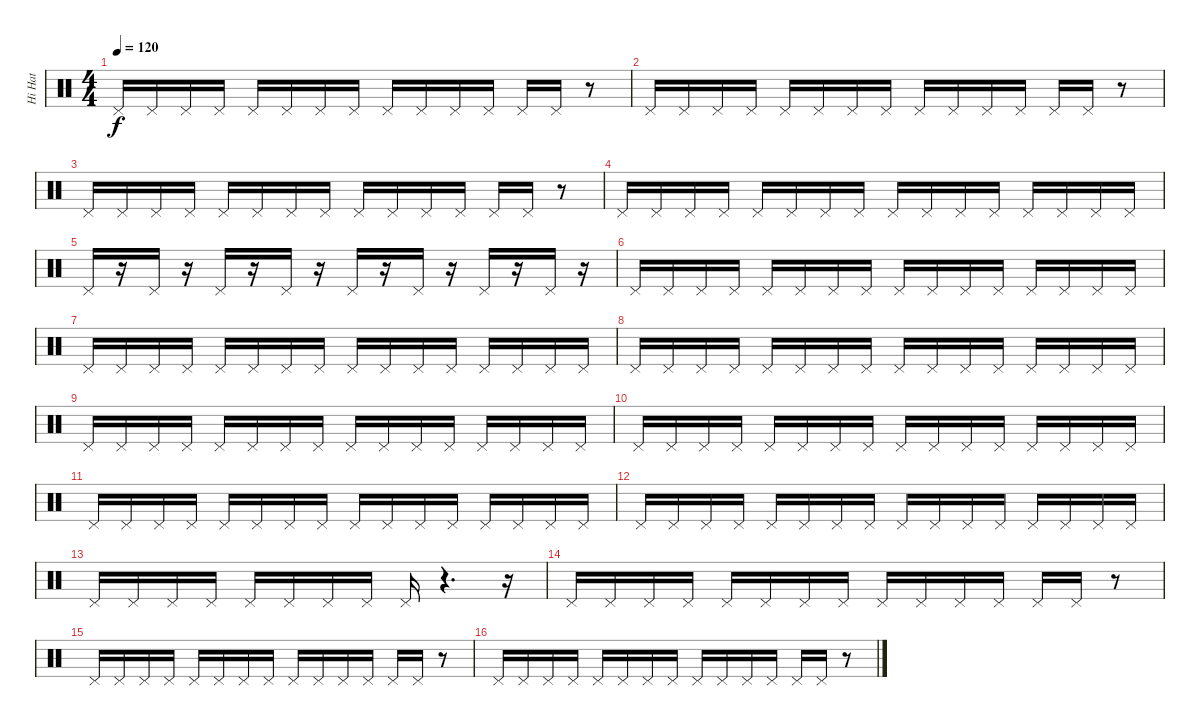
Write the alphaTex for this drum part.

\track ("Hi Hat" "Hi Hat") {instrument percussion}
\staff {score}
\articulation defaults
\ts (4 4)
\tempo 120
\clef neutral
\ks c "Pedal Hi-Hat (hit)".16{dy f} "Pedal Hi-Hat (hit)".16 "Pedal Hi-Hat (hit)".16 "Pedal Hi-Hat (hit)".16 "Pedal Hi-Hat (hit)".16 "Pedal Hi-Hat (hit)".16 "Pedal Hi-Hat (hit)".16 "Pedal Hi-Hat (hit)".16 "Pedal Hi-Hat (hit)".16 "Pedal Hi-Hat (hit)".16 "Pedal Hi-Hat (hit)".16 "Pedal Hi-Hat (hit)".16 "Pedal Hi-Hat (hit)".16 "Pedal Hi-Hat (hit)".16
r.8 |
"Pedal Hi-Hat (hit)".16 "Pedal Hi-Hat (hit)".16 "Pedal Hi-Hat (hit)".16 "Pedal Hi-Hat (hit)".16 "Pedal Hi-Hat (hit)".16 "Pedal Hi-Hat (hit)".16 "Pedal Hi-Hat (hit)".16 "Pedal Hi-Hat (hit)".16 "Pedal Hi-Hat (hit)".16 "Pedal Hi-Hat (hit)".16 "Pedal Hi-Hat (hit)".16 "Pedal Hi-Hat (hit)".16 "Pedal Hi-Hat (hit)".16 "Pedal Hi-Hat (hit)".16 r.8 |
"Pedal Hi-Hat (hit)".16 "Pedal Hi-Hat (hit)".16 "Pedal Hi-Hat (hit)".16 "Pedal Hi-Hat (hit)".16 "Pedal Hi-Hat (hit)".16 "Pedal Hi-Hat (hit)".16 "Pedal Hi-Hat (hit)".16 "Pedal Hi-Hat (hit)".16 "Pedal Hi-Hat (hit)".16 "Pedal Hi-Hat (hit)".16 "Pedal Hi-Hat (hit)".16 "Pedal Hi-Hat (hit)".16 "Pedal Hi-Hat (hit)".16 "Pedal Hi-Hat (hit)".16 r.8 |
"Pedal Hi-Hat (hit)".16 "Pedal Hi-Hat (hit)".16 "Pedal Hi-Hat (hit)".16 "Pedal Hi-Hat (hit)".16 "Pedal Hi-Hat (hit)".16 "Pedal Hi-Hat (hit)".16 "Pedal Hi-Hat (hit)".16 "Pedal Hi-Hat (hit)".16 "Pedal Hi-Hat (hit)".16 "Pedal Hi-Hat (hit)".16 "Pedal Hi-Hat (hit)".16 "Pedal Hi-Hat (hit)".16 "Pedal Hi-Hat (hit)".16 "Pedal Hi-Hat (hit)".16 "Pedal Hi-Hat (hit)".16 "Pedal Hi-Hat (hit)".16 |
"Pedal Hi-Hat (hit)".16 r.16 "Pedal Hi-Hat (hit)".16 r.16 "Pedal Hi-Hat (hit)".16 r.16 "Pedal Hi-Hat (hit)".16 r.16 "Pedal Hi-Hat (hit)".16 r.16 "Pedal Hi-Hat (hit)".16 r.16 "Pedal Hi-Hat (hit)".16 r.16 "Pedal Hi-Hat (hit)".16 r.16 |
"Pedal Hi-Hat (hit)".16 "Pedal Hi-Hat (hit)".16 "Pedal Hi-Hat (hit)".16 "Pedal Hi-Hat (hit)".16 "Pedal Hi-Hat (hit)".16 "Pedal Hi-Hat (hit)".16 "Pedal Hi-Hat (hit)".16 "Pedal Hi-Hat (hit)".16 "Pedal Hi-Hat (hit)".16 "Pedal Hi-Hat (hit)".16 "Pedal Hi-Hat (hit)".16 "Pedal Hi-Hat (hit)".16 "Pedal Hi-Hat (hit)".16 "Pedal Hi-Hat (hit)".16 "Pedal Hi-Hat (hit)".16 "Pedal Hi-Hat (hit)".16 |
"Pedal Hi-Hat (hit)".16 "Pedal Hi-Hat (hit)".16 "Pedal Hi-Hat (hit)".16 "Pedal Hi-Hat (hit)".16 "Pedal Hi-Hat (hit)".16 "Pedal Hi-Hat (hit)".16 "Pedal Hi-Hat (hit)".16 "Pedal Hi-Hat (hit)".16 "Pedal Hi-Hat (hit)".16 "Pedal Hi-Hat (hit)".16 "Pedal Hi-Hat (hit)".16 "Pedal Hi-Hat (hit)".16 "Pedal Hi-Hat (hit)".16 "Pedal Hi-Hat (hit)".16 "Pedal Hi-Hat (hit)".16 "Pedal Hi-Hat (hit)".16 |
"Pedal Hi-Hat (hit)".16 "Pedal Hi-Hat (hit)".16 "Pedal Hi-Hat (hit)".16 "Pedal Hi-Hat (hit)".16 "Pedal Hi-Hat (hit)".16 "Pedal Hi-Hat (hit)".16 "Pedal Hi-Hat (hit)".16 "Pedal Hi-Hat (hit)".16 "Pedal Hi-Hat (hit)".16 "Pedal Hi-Hat (hit)".16 "Pedal Hi-Hat (hit)".16 "Pedal Hi-Hat (hit)".16 "Pedal Hi-Hat (hit)".16 "Pedal Hi-Hat (hit)".16 "Pedal Hi-Hat (hit)".16 "Pedal Hi-Hat (hit)".16 |
"Pedal Hi-Hat (hit)".16 "Pedal Hi-Hat (hit)".16 "Pedal Hi-Hat (hit)".16 "Pedal Hi-Hat (hit)".16 "Pedal Hi-Hat (hit)".16 "Pedal Hi-Hat (hit)".16 "Pedal Hi-Hat (hit)".16 "Pedal Hi-Hat (hit)".16 "Pedal Hi-Hat (hit)".16 "Pedal Hi-Hat (hit)".16 "Pedal Hi-Hat (hit)".16 "Pedal Hi-Hat (hit)".16 "Pedal Hi-Hat (hit)".16 "Pedal Hi-Hat (hit)".16 "Pedal Hi-Hat (hit)".16 "Pedal Hi-Hat (hit)".16 |
"Pedal Hi-Hat (hit)".16 "Pedal Hi-Hat (hit)".16 "Pedal Hi-Hat (hit)".16 "Pedal Hi-Hat (hit)".16 "Pedal Hi-Hat (hit)".16 "Pedal Hi-Hat (hit)".16 "Pedal Hi-Hat (hit)".16 "Pedal Hi-Hat (hit)".16 "Pedal Hi-Hat (hit)".16 "Pedal Hi-Hat (hit)".16 "Pedal Hi-Hat (hit)".16 "Pedal Hi-Hat (hit)".16 "Pedal Hi-Hat (hit)".16 "Pedal Hi-Hat (hit)".16 "Pedal Hi-Hat (hit)".16 "Pedal Hi-Hat (hit)".16 |
"Pedal Hi-Hat (hit)".16 "Pedal Hi-Hat (hit)".16 "Pedal Hi-Hat (hit)".16 "Pedal Hi-Hat (hit)".16 "Pedal Hi-Hat (hit)".16 "Pedal Hi-Hat (hit)".16 "Pedal Hi-Hat (hit)".16 "Pedal Hi-Hat (hit)".16 "Pedal Hi-Hat (hit)".16 "Pedal Hi-Hat (hit)".16 "Pedal Hi-Hat (hit)".16 "Pedal Hi-Hat (hit)".16 "Pedal Hi-Hat (hit)".16 "Pedal Hi-Hat (hit)".16 "Pedal Hi-Hat (hit)".16 "Pedal Hi-Hat (hit)".16 |
"Pedal Hi-Hat (hit)".16 "Pedal Hi-Hat (hit)".16 "Pedal Hi-Hat (hit)".16 "Pedal Hi-Hat (hit)".16 "Pedal Hi-Hat (hit)".16 "Pedal Hi-Hat (hit)".16 "Pedal Hi-Hat (hit)".16 "Pedal Hi-Hat (hit)".16 "Pedal Hi-Hat (hit)".16 "Pedal Hi-Hat (hit)".16 "Pedal Hi-Hat (hit)".16 "Pedal Hi-Hat (hit)".16 "Pedal Hi-Hat (hit)".16 "Pedal Hi-Hat (hit)".16 "Pedal Hi-Hat (hit)".16 "Pedal Hi-Hat (hit)".16 |
"Pedal Hi-Hat (hit)".16 "Pedal Hi-Hat (hit)".16 "Pedal Hi-Hat (hit)".16 "Pedal Hi-Hat (hit)".16 "Pedal Hi-Hat (hit)".16 "Pedal Hi-Hat (hit)".16 "Pedal Hi-Hat (hit)".16 "Pedal Hi-Hat (hit)".16 "Pedal Hi-Hat (hit)".16 r.4{d} r.16 |
"Pedal Hi-Hat (hit)".16 "Pedal Hi-Hat (hit)".16 "Pedal Hi-Hat (hit)".16 "Pedal Hi-Hat (hit)".16 "Pedal Hi-Hat (hit)".16 "Pedal Hi-Hat (hit)".16 "Pedal Hi-Hat (hit)".16 "Pedal Hi-Hat (hit)".16 "Pedal Hi-Hat (hit)".16 "Pedal Hi-Hat (hit)".16 "Pedal Hi-Hat (hit)".16 "Pedal Hi-Hat (hit)".16 "Pedal Hi-Hat (hit)".16 "Pedal Hi-Hat (hit)".16 r.8 |
"Pedal Hi-Hat (hit)".16 "Pedal Hi-Hat (hit)".16 "Pedal Hi-Hat (hit)".16 "Pedal Hi-Hat (hit)".16 "Pedal Hi-Hat (hit)".16 "Pedal Hi-Hat (hit)".16 "Pedal Hi-Hat (hit)".16 "Pedal Hi-Hat (hit)".16 "Pedal Hi-Hat (hit)".16 "Pedal Hi-Hat (hit)".16 "Pedal Hi-Hat (hit)".16 "Pedal Hi-Hat (hit)".16 "Pedal Hi-Hat (hit)".16 "Pedal Hi-Hat (hit)".16 r.8 |
"Pedal Hi-Hat (hit)".16 "Pedal Hi-Hat (hit)".16 "Pedal Hi-Hat (hit)".16 "Pedal Hi-Hat (hit)".16 "Pedal Hi-Hat (hit)".16 "Pedal Hi-Hat (hit)".16 "Pedal Hi-Hat (hit)".16 "Pedal Hi-Hat (hit)".16 "Pedal Hi-Hat (hit)".16 "Pedal Hi-Hat (hit)".16 "Pedal Hi-Hat (hit)".16 "Pedal Hi-Hat (hit)".16 "Pedal Hi-Hat (hit)".16 "Pedal Hi-Hat (hit)".16 r.8
